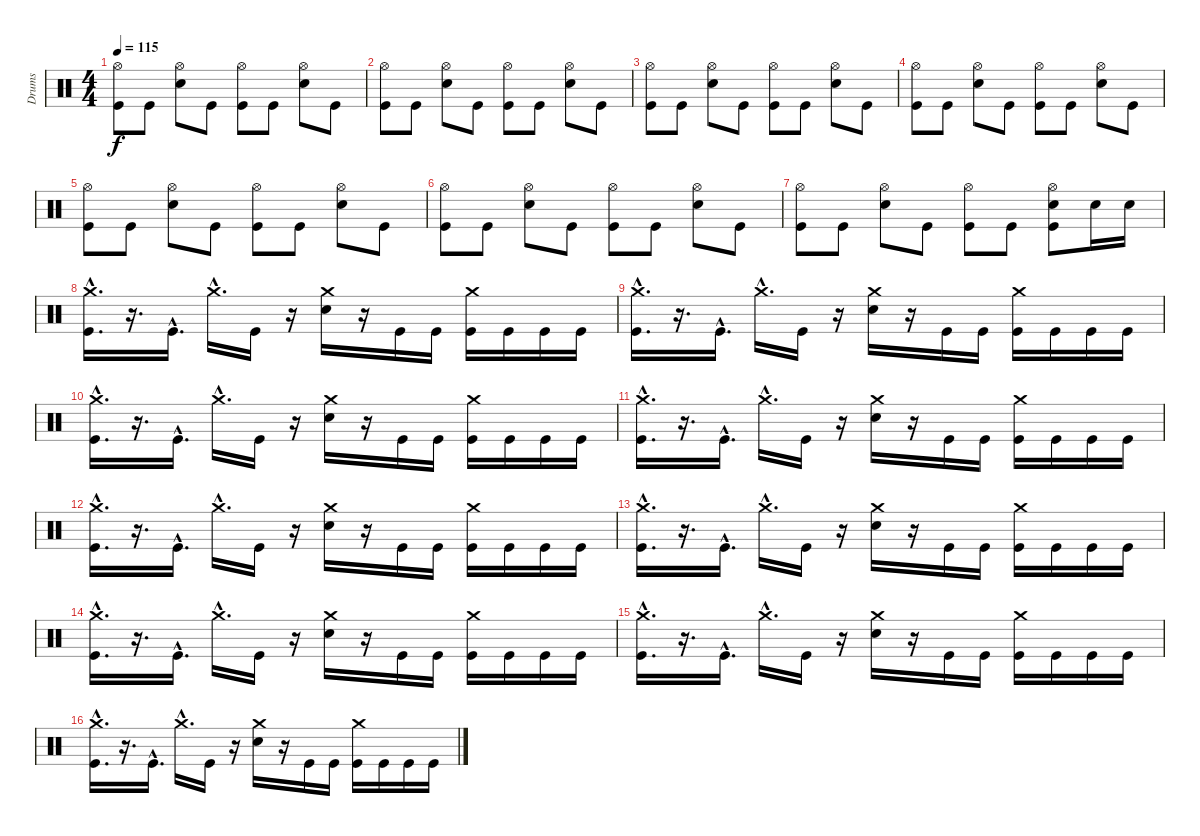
\track ("Drums" "Drums") {instrument percussion}
\staff {score}
\articulation defaults
\ts (4 4)
\tempo 115
\clef neutral
\ks c
("Hi-Hat (open)" "Kick (hit)").8{dy f} "Kick (hit)".8 ("Hi-Hat (open)" "Electric Snare (hit)").8 "Kick (hit)".8 ("Hi-Hat (open)" "Kick (hit)").8 "Kick (hit)".8 ("Hi-Hat (open)" "Electric Snare (hit)").8 "Kick (hit)".8 |
("Hi-Hat (open)" "Kick (hit)").8 "Kick (hit)".8 ("Hi-Hat (open)" "Electric Snare (hit)").8 "Kick (hit)".8 ("Hi-Hat (open)" "Kick (hit)").8 "Kick (hit)".8 ("Hi-Hat (open)" "Electric Snare (hit)").8 "Kick (hit)".8 |
("Hi-Hat (open)" "Kick (hit)").8 "Kick (hit)".8 ("Hi-Hat (open)" "Electric Snare (hit)").8 "Kick (hit)".8 ("Hi-Hat (open)" "Kick (hit)").8 "Kick (hit)".8 ("Hi-Hat (open)" "Electric Snare (hit)").8 "Kick (hit)".8 |
("Hi-Hat (open)" "Kick (hit)").8 "Kick (hit)".8 ("Hi-Hat (open)" "Electric Snare (hit)").8 "Kick (hit)".8 ("Hi-Hat (open)" "Kick (hit)").8 "Kick (hit)".8 ("Hi-Hat (open)" "Electric Snare (hit)").8 "Kick (hit)".8 |
("Hi-Hat (open)" "Kick (hit)").8 "Kick (hit)".8 ("Hi-Hat (open)" "Electric Snare (hit)").8 "Kick (hit)".8 ("Hi-Hat (open)" "Kick (hit)").8 "Kick (hit)".8 ("Hi-Hat (open)" "Electric Snare (hit)").8 "Kick (hit)".8 |
("Hi-Hat (open)" "Kick (hit)").8 "Kick (hit)".8 ("Hi-Hat (open)" "Electric Snare (hit)").8 "Kick (hit)".8 ("Hi-Hat (open)" "Kick (hit)").8 "Kick (hit)".8 ("Hi-Hat (open)" "Electric Snare (hit)").8 "Kick (hit)".8 |
("Hi-Hat (open)" "Kick (hit)").8 "Kick (hit)".8 ("Hi-Hat (open)" "Electric Snare (hit)").8 "Kick (hit)".8 ("Hi-Hat (open)" "Kick (hit)").8 "Kick (hit)".8 ("Hi-Hat (open)" "Electric Snare (hit)" "Kick (hit)").8 "Electric Snare (hit)".16 "Electric Snare (hit)".16 |
("Crash medium (hit)"{hac} "Kick (hit)"{hac}).16{d} r.16{d} "Kick (hit)"{hac}.16{d} "Crash medium (hit)"{hac}.16{d} "Kick (hit)".16 r.16 ("Crash medium (hit)" "Electric Snare (hit)").16 r.16 "Kick (hit)".16 "Kick (hit)".16 ("Crash medium (hit)" "Kick (hit)").16 "Kick (hit)".16 "Kick (hit)".16 "Kick (hit)".16 |
("Crash medium (hit)"{hac} "Kick (hit)"{hac}).16{d} r.16{d} "Kick (hit)"{hac}.16{d} "Crash medium (hit)"{hac}.16{d} "Kick (hit)".16 r.16 ("Crash medium (hit)" "Electric Snare (hit)").16 r.16 "Kick (hit)".16 "Kick (hit)".16 ("Crash medium (hit)" "Kick (hit)").16 "Kick (hit)".16 "Kick (hit)".16 "Kick (hit)".16 |
("Crash medium (hit)"{hac} "Kick (hit)"{hac}).16{d} r.16{d} "Kick (hit)"{hac}.16{d} "Crash medium (hit)"{hac}.16{d} "Kick (hit)".16 r.16 ("Crash medium (hit)" "Electric Snare (hit)").16 r.16 "Kick (hit)".16 "Kick (hit)".16 ("Crash medium (hit)" "Kick (hit)").16 "Kick (hit)".16 "Kick (hit)".16 "Kick (hit)".16 |
("Crash medium (hit)"{hac} "Kick (hit)"{hac}).16{d} r.16{d} "Kick (hit)"{hac}.16{d} "Crash medium (hit)"{hac}.16{d} "Kick (hit)".16 r.16 ("Crash medium (hit)" "Electric Snare (hit)").16 r.16 "Kick (hit)".16 "Kick (hit)".16 ("Crash medium (hit)" "Kick (hit)").16 "Kick (hit)".16 "Kick (hit)".16 "Kick (hit)".16 |
("Crash medium (hit)"{hac} "Kick (hit)"{hac}).16{d} r.16{d} "Kick (hit)"{hac}.16{d} "Crash medium (hit)"{hac}.16{d} "Kick (hit)".16 r.16 ("Crash medium (hit)" "Electric Snare (hit)").16 r.16 "Kick (hit)".16 "Kick (hit)".16 ("Crash medium (hit)" "Kick (hit)").16 "Kick (hit)".16 "Kick (hit)".16 "Kick (hit)".16 |
("Crash medium (hit)"{hac} "Kick (hit)"{hac}).16{d} r.16{d} "Kick (hit)"{hac}.16{d} "Crash medium (hit)"{hac}.16{d} "Kick (hit)".16 r.16 ("Crash medium (hit)" "Electric Snare (hit)").16 r.16 "Kick (hit)".16 "Kick (hit)".16 ("Crash medium (hit)" "Kick (hit)").16 "Kick (hit)".16 "Kick (hit)".16 "Kick (hit)".16 |
("Crash medium (hit)"{hac} "Kick (hit)"{hac}).16{d} r.16{d} "Kick (hit)"{hac}.16{d} "Crash medium (hit)"{hac}.16{d} "Kick (hit)".16 r.16 ("Crash medium (hit)" "Electric Snare (hit)").16 r.16 "Kick (hit)".16 "Kick (hit)".16 ("Crash medium (hit)" "Kick (hit)").16 "Kick (hit)".16 "Kick (hit)".16 "Kick (hit)".16 |
("Crash medium (hit)"{hac} "Kick (hit)"{hac}).16{d} r.16{d} "Kick (hit)"{hac}.16{d} "Crash medium (hit)"{hac}.16{d} "Kick (hit)".16 r.16 ("Crash medium (hit)" "Electric Snare (hit)").16 r.16 "Kick (hit)".16 "Kick (hit)".16 ("Crash medium (hit)" "Kick (hit)").16 "Kick (hit)".16 "Kick (hit)".16 "Kick (hit)".16 |
("Crash medium (hit)"{hac} "Kick (hit)"{hac}).16{d} r.16{d} "Kick (hit)"{hac}.16{d} "Crash medium (hit)"{hac}.16{d} "Kick (hit)".16 r.16 ("Crash medium (hit)" "Electric Snare (hit)").16 r.16 "Kick (hit)".16 "Kick (hit)".16 ("Crash medium (hit)" "Kick (hit)").16 "Kick (hit)".16 "Kick (hit)".16 "Kick (hit)".16
